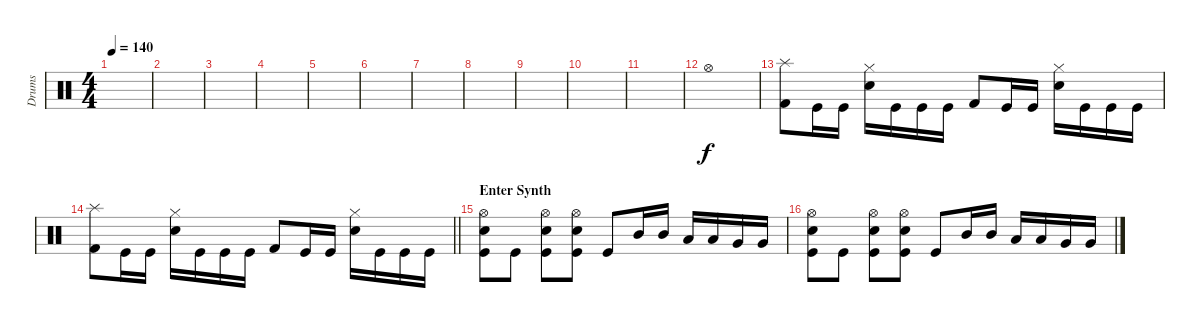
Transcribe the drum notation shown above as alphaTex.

\track ("Drums" "Drums") {instrument percussion}
\staff {score}
\articulation defaults
\ts (4 4)
\tempo 140
\clef neutral
\ks c
|
|
|
|
|
|
|
|
|
|
|
"Hi-Hat (open)".1 |
("Splash (hit)" "Kick (hit) 2").8 "Kick (hit)".16 "Kick (hit)".16 ("Snare (hit) 2" "Hi-Hat (closed)").16 "Kick (hit)".16 "Kick (hit)".16 "Kick (hit)".16 "Kick (hit) 2".8 "Kick (hit)".16 "Kick (hit)".16 ("Snare (hit) 2" "Hi-Hat (closed)").16 "Kick (hit)".16 "Kick (hit)".16 "Kick (hit)".16 |
\barLineRight lightlight
("Splash (hit)" "Kick (hit) 2").8 "Kick (hit)".16 "Kick (hit)".16 ("Snare (hit) 2" "Hi-Hat (closed)").16 "Kick (hit)".16 "Kick (hit)".16 "Kick (hit)".16 "Kick (hit) 2".8 "Kick (hit)".16 "Kick (hit)".16 ("Snare (hit) 2" "Hi-Hat (closed)").16 "Kick (hit)".16 "Kick (hit)".16 "Kick (hit)".16 |
\section ("" "Enter Synth")
("Hi-Hat (open)" "Snare (hit) 2" "Kick (hit)").8 "Kick (hit)".8 ("Hi-Hat (open)" "Snare (hit) 2" "Kick (hit)").8 ("Hi-Hat (open)" "Snare (hit) 2" "Kick (hit)").8 "Kick (hit)".8 "Mid Tom (hit)".16 "Mid Tom (hit)".16 "Low Tom (hit)".16 "Low Tom (hit)".16 "Very Low Tom (hit)".16 "Very Low Tom (hit)".16 |
("Hi-Hat (open)" "Snare (hit) 2" "Kick (hit)").8 "Kick (hit)".8 ("Hi-Hat (open)" "Snare (hit) 2" "Kick (hit)").8 ("Hi-Hat (open)" "Snare (hit) 2" "Kick (hit)").8 "Kick (hit)".8 "Mid Tom (hit)".16 "Mid Tom (hit)".16 "Low Tom (hit)".16 "Low Tom (hit)".16 "Very Low Tom (hit)".16 "Very Low Tom (hit)".16
